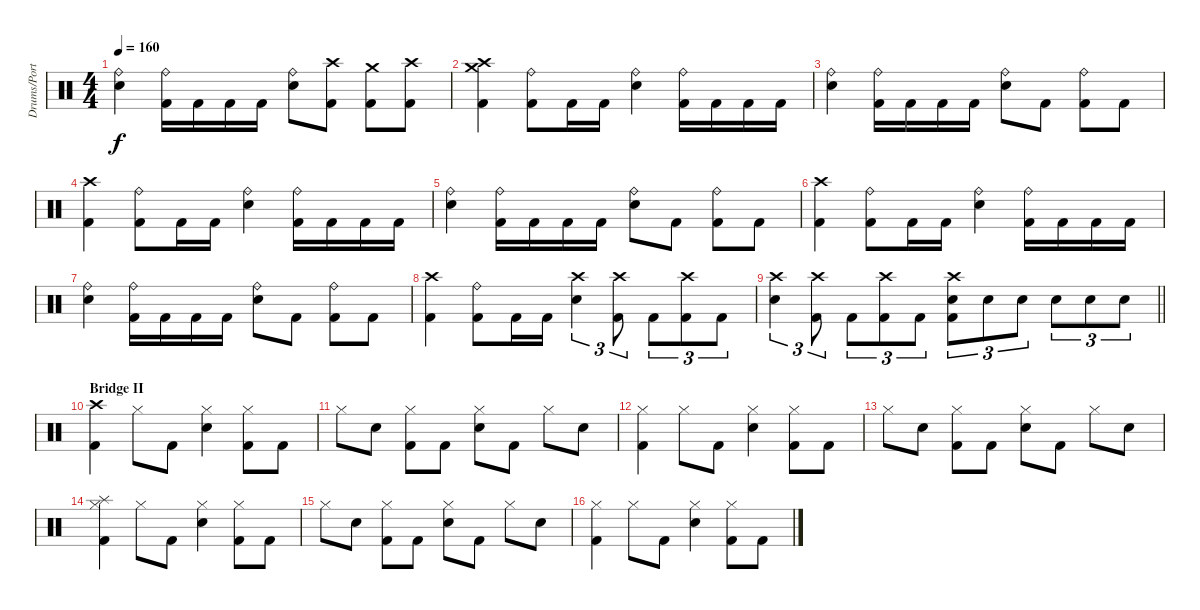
\track ("Drums/Portnoy" "Drums/Port") {instrument percussion}
\staff {score}
\articulation defaults
\ts (4 4)
\tempo 160
\clef neutral
\ks c
("Ride (bell)" "Electric Snare (hit)").4{dy f} ("Ride (bell)" "Kick (hit) 2").16 "Kick (hit) 2".16 "Kick (hit) 2".16 "Kick (hit) 2".16 ("Ride (bell)" "Electric Snare (hit)").8 ("Crash high (hit)" "Kick (hit) 2").8 ("Crash medium (hit)" "Kick (hit) 2").8 ("Crash high (hit)" "Kick (hit) 2").8 |
("Crash high (hit)" "Crash medium (hit)" "Kick (hit) 2").4 ("Ride (bell)" "Kick (hit) 2").8 "Kick (hit) 2".16 "Kick (hit) 2".16 ("Ride (bell)" "Electric Snare (hit)").4 ("Ride (bell)" "Kick (hit) 2").16 "Kick (hit) 2".16 "Kick (hit) 2".16 "Kick (hit) 2".16 |
("Ride (bell)" "Electric Snare (hit)").4 ("Ride (bell)" "Kick (hit) 2").16 "Kick (hit) 2".16 "Kick (hit) 2".16 "Kick (hit) 2".16 ("Ride (bell)" "Electric Snare (hit)").8 "Kick (hit) 2".8 ("Ride (bell)" "Kick (hit) 2").8 "Kick (hit) 2".8 |
("Crash high (hit)" "Kick (hit) 2").4 ("Ride (bell)" "Kick (hit) 2").8 "Kick (hit) 2".16 "Kick (hit) 2".16 ("Ride (bell)" "Electric Snare (hit)").4 ("Ride (bell)" "Kick (hit) 2").16 "Kick (hit) 2".16 "Kick (hit) 2".16 "Kick (hit) 2".16 |
("Ride (bell)" "Electric Snare (hit)").4 ("Ride (bell)" "Kick (hit) 2").16 "Kick (hit) 2".16 "Kick (hit) 2".16 "Kick (hit) 2".16 ("Ride (bell)" "Electric Snare (hit)").8 "Kick (hit) 2".8 ("Ride (bell)" "Kick (hit) 2").8 "Kick (hit) 2".8 |
("Crash high (hit)" "Kick (hit) 2").4 ("Ride (bell)" "Kick (hit) 2").8 "Kick (hit) 2".16 "Kick (hit) 2".16 ("Ride (bell)" "Electric Snare (hit)").4 ("Ride (bell)" "Kick (hit) 2").16 "Kick (hit) 2".16 "Kick (hit) 2".16 "Kick (hit) 2".16 |
("Ride (bell)" "Electric Snare (hit)").4 ("Ride (bell)" "Kick (hit) 2").16 "Kick (hit) 2".16 "Kick (hit) 2".16 "Kick (hit) 2".16 ("Ride (bell)" "Electric Snare (hit)").8 "Kick (hit) 2".8 ("Ride (bell)" "Kick (hit) 2").8 "Kick (hit) 2".8 |
("Crash high (hit)" "Kick (hit) 2").4 ("Ride (bell)" "Kick (hit) 2").8 "Kick (hit) 2".16 "Kick (hit) 2".16 ("Crash high (hit)" "Electric Snare (hit)").4{tu (3 2)} ("Crash high (hit)" "Kick (hit) 2").8{tu (3 2)} "Kick (hit) 2".8{tu (3 2)} ("Crash high (hit)" "Kick (hit) 2").8{tu (3 2)} "Kick (hit) 2".8{tu (3 2)} |
\barLineRight lightlight
("Crash high (hit)" "Electric Snare (hit)").4{tu (3 2)} ("Crash high (hit)" "Kick (hit) 2").8{tu (3 2)} "Kick (hit) 2".8{tu (3 2)} ("Crash high (hit)" "Kick (hit) 2").8{tu (3 2)} "Kick (hit) 2".8{tu (3 2)} ("Crash high (hit)" "Electric Snare (hit)" "Kick (hit) 2").8{tu (3 2)} "Electric Snare (hit)".8{tu (3 2)} "Electric Snare (hit)".8{tu (3 2)} "Electric Snare (hit)".8{tu (3 2)} "Electric Snare (hit)".8{tu (3 2)} "Electric Snare (hit)".8{tu (3 2)} |
\section ("" "Bridge II")
("Crash high (hit)" "Kick (hit) 2").4 "Hi-Hat (closed)".8 "Kick (hit) 2".8 ("Hi-Hat (closed)" "Electric Snare (hit)").4 ("Hi-Hat (closed)" "Kick (hit) 2").8 "Kick (hit) 2".8 |
"Hi-Hat (closed)".8 "Electric Snare (hit)".8 ("Hi-Hat (closed)" "Kick (hit) 2").8 "Kick (hit) 2".8 ("Hi-Hat (closed)" "Electric Snare (hit)").8 "Kick (hit) 2".8 "Hi-Hat (closed)".8 "Electric Snare (hit)".8 |
("Hi-Hat (closed)" "Kick (hit) 2").4 "Hi-Hat (closed)".8 "Kick (hit) 2".8 ("Hi-Hat (closed)" "Electric Snare (hit)").4 ("Hi-Hat (closed)" "Kick (hit) 2").8 "Kick (hit) 2".8 |
"Hi-Hat (closed)".8 "Electric Snare (hit)".8 ("Hi-Hat (closed)" "Kick (hit) 2").8 "Kick (hit) 2".8 ("Hi-Hat (closed)" "Electric Snare (hit)").8 "Kick (hit) 2".8 "Hi-Hat (closed)".8 "Electric Snare (hit)".8 |
("Splash (hit)" "Hi-Hat (closed)" "Kick (hit) 2").4 "Hi-Hat (closed)".8 "Kick (hit) 2".8 ("Hi-Hat (closed)" "Electric Snare (hit)").4 ("Hi-Hat (closed)" "Kick (hit) 2").8 "Kick (hit) 2".8 |
"Hi-Hat (closed)".8 "Electric Snare (hit)".8 ("Hi-Hat (closed)" "Kick (hit) 2").8 "Kick (hit) 2".8 ("Hi-Hat (closed)" "Electric Snare (hit)").8 "Kick (hit) 2".8 "Hi-Hat (closed)".8 "Electric Snare (hit)".8 |
("Hi-Hat (closed)" "Kick (hit) 2").4 "Hi-Hat (closed)".8 "Kick (hit) 2".8 ("Hi-Hat (closed)" "Electric Snare (hit)").4 ("Hi-Hat (closed)" "Kick (hit) 2").8 "Kick (hit) 2".8
